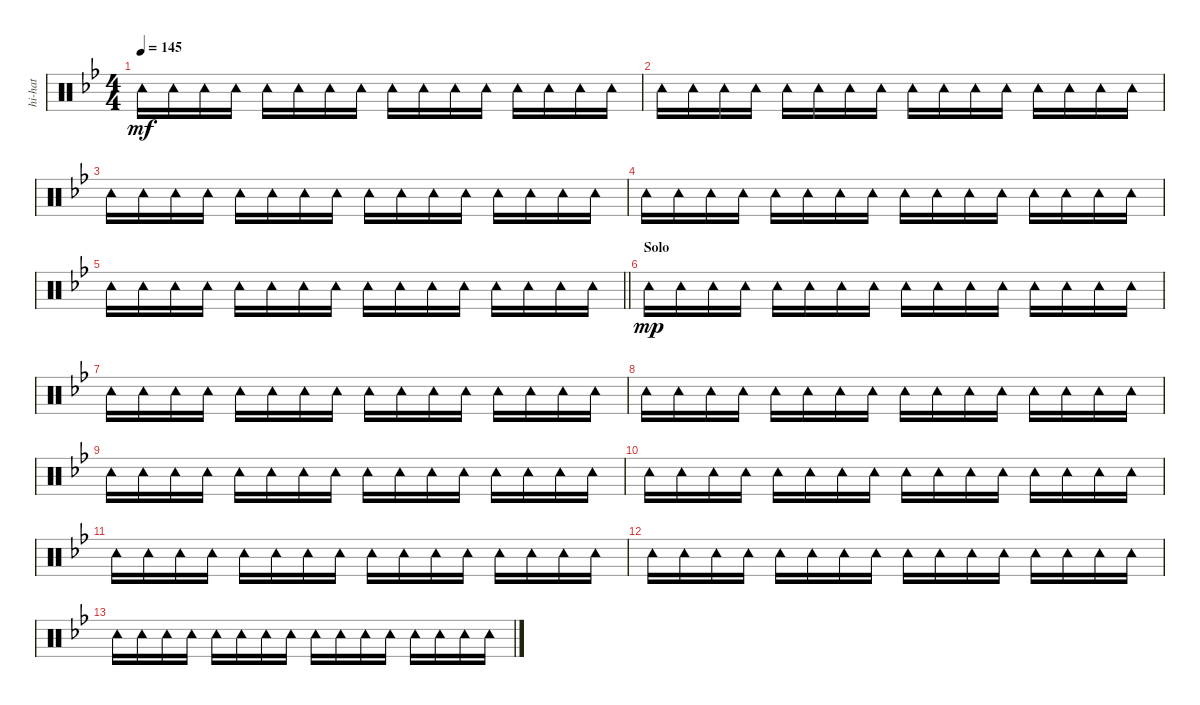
\track ("hi-hat" "hi-hat") {instrument percussion}
\staff {score}
\articulation defaults
\ts (4 4)
\tempo 145
\clef neutral
\ks bb "Tambourine (hit)".16{dy mf} "Tambourine (hit)".16 "Tambourine (hit)".16 "Tambourine (hit)".16 "Tambourine (hit)".16 "Tambourine (hit)".16 "Tambourine (hit)".16 "Tambourine (hit)".16 "Tambourine (hit)".16 "Tambourine (hit)".16 "Tambourine (hit)".16 "Tambourine (hit)".16 "Tambourine (hit)".16 "Tambourine (hit)".16 "Tambourine (hit)".16 "Tambourine (hit)".16
|
"Tambourine (hit)".16 "Tambourine (hit)".16 "Tambourine (hit)".16 "Tambourine (hit)".16 "Tambourine (hit)".16 "Tambourine (hit)".16 "Tambourine (hit)".16 "Tambourine (hit)".16 "Tambourine (hit)".16 "Tambourine (hit)".16 "Tambourine (hit)".16 "Tambourine (hit)".16 "Tambourine (hit)".16 "Tambourine (hit)".16 "Tambourine (hit)".16 "Tambourine (hit)".16 |
"Tambourine (hit)".16 "Tambourine (hit)".16 "Tambourine (hit)".16 "Tambourine (hit)".16 "Tambourine (hit)".16 "Tambourine (hit)".16 "Tambourine (hit)".16 "Tambourine (hit)".16 "Tambourine (hit)".16 "Tambourine (hit)".16 "Tambourine (hit)".16 "Tambourine (hit)".16 "Tambourine (hit)".16 "Tambourine (hit)".16 "Tambourine (hit)".16 "Tambourine (hit)".16 |
"Tambourine (hit)".16 "Tambourine (hit)".16 "Tambourine (hit)".16 "Tambourine (hit)".16 "Tambourine (hit)".16 "Tambourine (hit)".16 "Tambourine (hit)".16 "Tambourine (hit)".16 "Tambourine (hit)".16 "Tambourine (hit)".16 "Tambourine (hit)".16 "Tambourine (hit)".16 "Tambourine (hit)".16 "Tambourine (hit)".16 "Tambourine (hit)".16 "Tambourine (hit)".16 |
\barLineRight lightlight "Tambourine (hit)".16 "Tambourine (hit)".16 "Tambourine (hit)".16 "Tambourine (hit)".16 "Tambourine (hit)".16 "Tambourine (hit)".16 "Tambourine (hit)".16 "Tambourine (hit)".16 "Tambourine (hit)".16 "Tambourine (hit)".16 "Tambourine (hit)".16 "Tambourine (hit)".16 "Tambourine (hit)".16 "Tambourine (hit)".16 "Tambourine (hit)".16 "Tambourine (hit)".16
|
\section ("" "Solo")
"Tambourine (hit)".16{dy mp} "Tambourine (hit)".16 "Tambourine (hit)".16 "Tambourine (hit)".16 "Tambourine (hit)".16 "Tambourine (hit)".16 "Tambourine (hit)".16 "Tambourine (hit)".16 "Tambourine (hit)".16 "Tambourine (hit)".16 "Tambourine (hit)".16 "Tambourine (hit)".16 "Tambourine (hit)".16 "Tambourine (hit)".16 "Tambourine (hit)".16 "Tambourine (hit)".16 |
"Tambourine (hit)".16 "Tambourine (hit)".16 "Tambourine (hit)".16 "Tambourine (hit)".16 "Tambourine (hit)".16 "Tambourine (hit)".16 "Tambourine (hit)".16 "Tambourine (hit)".16 "Tambourine (hit)".16 "Tambourine (hit)".16 "Tambourine (hit)".16 "Tambourine (hit)".16 "Tambourine (hit)".16 "Tambourine (hit)".16 "Tambourine (hit)".16 "Tambourine (hit)".16 |
"Tambourine (hit)".16 "Tambourine (hit)".16 "Tambourine (hit)".16 "Tambourine (hit)".16 "Tambourine (hit)".16 "Tambourine (hit)".16 "Tambourine (hit)".16 "Tambourine (hit)".16 "Tambourine (hit)".16 "Tambourine (hit)".16 "Tambourine (hit)".16 "Tambourine (hit)".16 "Tambourine (hit)".16 "Tambourine (hit)".16 "Tambourine (hit)".16 "Tambourine (hit)".16 |
"Tambourine (hit)".16 "Tambourine (hit)".16 "Tambourine (hit)".16 "Tambourine (hit)".16 "Tambourine (hit)".16 "Tambourine (hit)".16 "Tambourine (hit)".16 "Tambourine (hit)".16 "Tambourine (hit)".16 "Tambourine (hit)".16 "Tambourine (hit)".16 "Tambourine (hit)".16 "Tambourine (hit)".16 "Tambourine (hit)".16 "Tambourine (hit)".16 "Tambourine (hit)".16 |
"Tambourine (hit)".16 "Tambourine (hit)".16 "Tambourine (hit)".16 "Tambourine (hit)".16 "Tambourine (hit)".16 "Tambourine (hit)".16 "Tambourine (hit)".16 "Tambourine (hit)".16 "Tambourine (hit)".16 "Tambourine (hit)".16 "Tambourine (hit)".16 "Tambourine (hit)".16 "Tambourine (hit)".16 "Tambourine (hit)".16 "Tambourine (hit)".16 "Tambourine (hit)".16 |
"Tambourine (hit)".16 "Tambourine (hit)".16 "Tambourine (hit)".16 "Tambourine (hit)".16 "Tambourine (hit)".16 "Tambourine (hit)".16 "Tambourine (hit)".16 "Tambourine (hit)".16 "Tambourine (hit)".16 "Tambourine (hit)".16 "Tambourine (hit)".16 "Tambourine (hit)".16 "Tambourine (hit)".16 "Tambourine (hit)".16 "Tambourine (hit)".16 "Tambourine (hit)".16 |
"Tambourine (hit)".16 "Tambourine (hit)".16 "Tambourine (hit)".16 "Tambourine (hit)".16 "Tambourine (hit)".16 "Tambourine (hit)".16 "Tambourine (hit)".16 "Tambourine (hit)".16 "Tambourine (hit)".16 "Tambourine (hit)".16 "Tambourine (hit)".16 "Tambourine (hit)".16 "Tambourine (hit)".16 "Tambourine (hit)".16 "Tambourine (hit)".16 "Tambourine (hit)".16 |
"Tambourine (hit)".16 "Tambourine (hit)".16 "Tambourine (hit)".16 "Tambourine (hit)".16 "Tambourine (hit)".16 "Tambourine (hit)".16 "Tambourine (hit)".16 "Tambourine (hit)".16 "Tambourine (hit)".16 "Tambourine (hit)".16 "Tambourine (hit)".16 "Tambourine (hit)".16 "Tambourine (hit)".16 "Tambourine (hit)".16 "Tambourine (hit)".16 "Tambourine (hit)".16
